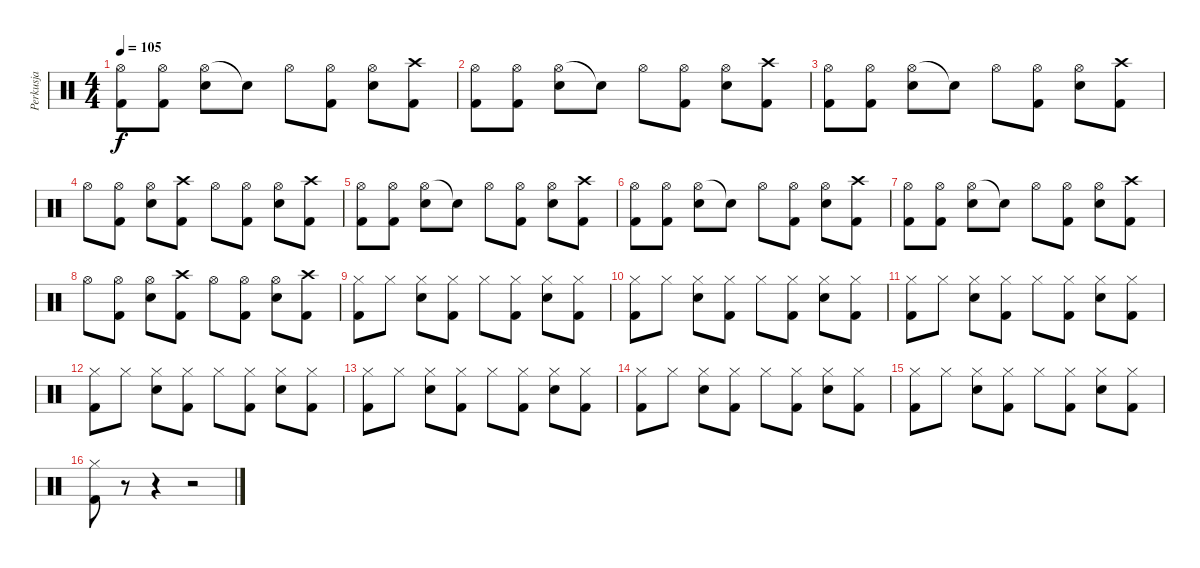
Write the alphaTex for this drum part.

\track ("Perkusja" "Perkusja") {instrument percussion}
\staff {score}
\articulation defaults
\ts (4 4)
\tempo 105
\clef neutral
\ks c
("Hi-Hat (open)" "Kick (hit) 2").8{dy f} ("Hi-Hat (open)" "Kick (hit) 2").8 ("Hi-Hat (open)" "Snare (hit) 2").8 "Snare (hit)"{t}.8 "Hi-Hat (open)".8 ("Hi-Hat (open)" "Kick (hit) 2").8 ("Hi-Hat (open)" "Snare (hit) 2").8 ("Crash high (hit)" "Kick (hit) 2").8 |
("Hi-Hat (open)" "Kick (hit) 2").8 ("Hi-Hat (open)" "Kick (hit) 2").8 ("Hi-Hat (open)" "Snare (hit) 2").8 "Snare (hit)"{t}.8 "Hi-Hat (open)".8 ("Hi-Hat (open)" "Kick (hit) 2").8 ("Hi-Hat (open)" "Snare (hit) 2").8 ("Crash high (hit)" "Kick (hit) 2").8 |
("Hi-Hat (open)" "Kick (hit) 2").8 ("Hi-Hat (open)" "Kick (hit) 2").8 ("Hi-Hat (open)" "Snare (hit) 2").8 "Snare (hit)"{t}.8 "Hi-Hat (open)".8 ("Hi-Hat (open)" "Kick (hit) 2").8 ("Hi-Hat (open)" "Snare (hit) 2").8 ("Crash high (hit)" "Kick (hit) 2").8 |
"Hi-Hat (open)".8 ("Hi-Hat (open)" "Kick (hit) 2").8 ("Hi-Hat (open)" "Snare (hit) 2").8 ("Crash high (hit)" "Kick (hit) 2").8 "Hi-Hat (open)".8 ("Hi-Hat (open)" "Kick (hit) 2").8 ("Hi-Hat (open)" "Snare (hit) 2").8 ("Crash high (hit)" "Kick (hit) 2").8 |
("Hi-Hat (open)" "Kick (hit) 2").8 ("Hi-Hat (open)" "Kick (hit) 2").8 ("Hi-Hat (open)" "Snare (hit) 2").8 "Snare (hit)"{t}.8 "Hi-Hat (open)".8 ("Hi-Hat (open)" "Kick (hit) 2").8 ("Hi-Hat (open)" "Snare (hit) 2").8 ("Crash high (hit)" "Kick (hit) 2").8 |
("Hi-Hat (open)" "Kick (hit) 2").8 ("Hi-Hat (open)" "Kick (hit) 2").8 ("Hi-Hat (open)" "Snare (hit) 2").8 "Snare (hit)"{t}.8 "Hi-Hat (open)".8 ("Hi-Hat (open)" "Kick (hit) 2").8 ("Hi-Hat (open)" "Snare (hit) 2").8 ("Crash high (hit)" "Kick (hit) 2").8 |
("Hi-Hat (open)" "Kick (hit) 2").8 ("Hi-Hat (open)" "Kick (hit) 2").8 ("Hi-Hat (open)" "Snare (hit) 2").8 "Snare (hit)"{t}.8 "Hi-Hat (open)".8 ("Hi-Hat (open)" "Kick (hit) 2").8 ("Hi-Hat (open)" "Snare (hit) 2").8 ("Crash high (hit)" "Kick (hit) 2").8 |
"Hi-Hat (open)".8 ("Hi-Hat (open)" "Kick (hit) 2").8 ("Hi-Hat (open)" "Snare (hit) 2").8 ("Crash high (hit)" "Kick (hit) 2").8 "Hi-Hat (open)".8 ("Hi-Hat (open)" "Kick (hit) 2").8 ("Hi-Hat (open)" "Snare (hit) 2").8 ("Crash high (hit)" "Kick (hit) 2").8 |
("Hi-Hat (closed)" "Kick (hit) 2").8 "Hi-Hat (closed)".8 ("Hi-Hat (closed)" "Snare (hit) 2").8 ("Hi-Hat (closed)" "Kick (hit) 2").8 "Hi-Hat (closed)".8 ("Hi-Hat (closed)" "Kick (hit) 2").8 ("Hi-Hat (closed)" "Snare (hit) 2").8 ("Hi-Hat (closed)" "Kick (hit) 2").8 |
("Hi-Hat (closed)" "Kick (hit) 2").8 "Hi-Hat (closed)".8 ("Hi-Hat (closed)" "Snare (hit) 2").8 ("Hi-Hat (closed)" "Kick (hit) 2").8 "Hi-Hat (closed)".8 ("Hi-Hat (closed)" "Kick (hit) 2").8 ("Hi-Hat (closed)" "Snare (hit) 2").8 ("Hi-Hat (closed)" "Kick (hit) 2").8 |
("Hi-Hat (closed)" "Kick (hit) 2").8 "Hi-Hat (closed)".8 ("Hi-Hat (closed)" "Snare (hit) 2").8 ("Hi-Hat (closed)" "Kick (hit) 2").8 "Hi-Hat (closed)".8 ("Hi-Hat (closed)" "Kick (hit) 2").8 ("Hi-Hat (closed)" "Snare (hit) 2").8 ("Hi-Hat (closed)" "Kick (hit) 2").8 |
("Hi-Hat (closed)" "Kick (hit) 2").8 "Hi-Hat (closed)".8 ("Hi-Hat (closed)" "Snare (hit) 2").8 ("Hi-Hat (closed)" "Kick (hit) 2").8 "Hi-Hat (closed)".8 ("Hi-Hat (closed)" "Kick (hit) 2").8 ("Hi-Hat (closed)" "Snare (hit) 2").8 ("Hi-Hat (closed)" "Kick (hit) 2").8 |
("Hi-Hat (closed)" "Kick (hit) 2").8 "Hi-Hat (closed)".8 ("Hi-Hat (closed)" "Snare (hit) 2").8 ("Hi-Hat (closed)" "Kick (hit) 2").8 "Hi-Hat (closed)".8 ("Hi-Hat (closed)" "Kick (hit) 2").8 ("Hi-Hat (closed)" "Snare (hit) 2").8 ("Hi-Hat (closed)" "Kick (hit) 2").8 |
("Hi-Hat (closed)" "Kick (hit) 2").8 "Hi-Hat (closed)".8 ("Hi-Hat (closed)" "Snare (hit) 2").8 ("Hi-Hat (closed)" "Kick (hit) 2").8 "Hi-Hat (closed)".8 ("Hi-Hat (closed)" "Kick (hit) 2").8 ("Hi-Hat (closed)" "Snare (hit) 2").8 ("Hi-Hat (closed)" "Kick (hit) 2").8 |
("Hi-Hat (closed)" "Kick (hit) 2").8 "Hi-Hat (closed)".8 ("Hi-Hat (closed)" "Snare (hit) 2").8 ("Hi-Hat (closed)" "Kick (hit) 2").8 "Hi-Hat (closed)".8 ("Hi-Hat (closed)" "Kick (hit) 2").8 ("Hi-Hat (closed)" "Snare (hit) 2").8 ("Hi-Hat (closed)" "Kick (hit) 2").8 |
("Hi-Hat (closed)" "Kick (hit) 2").8 r.8 r.4 r.2
